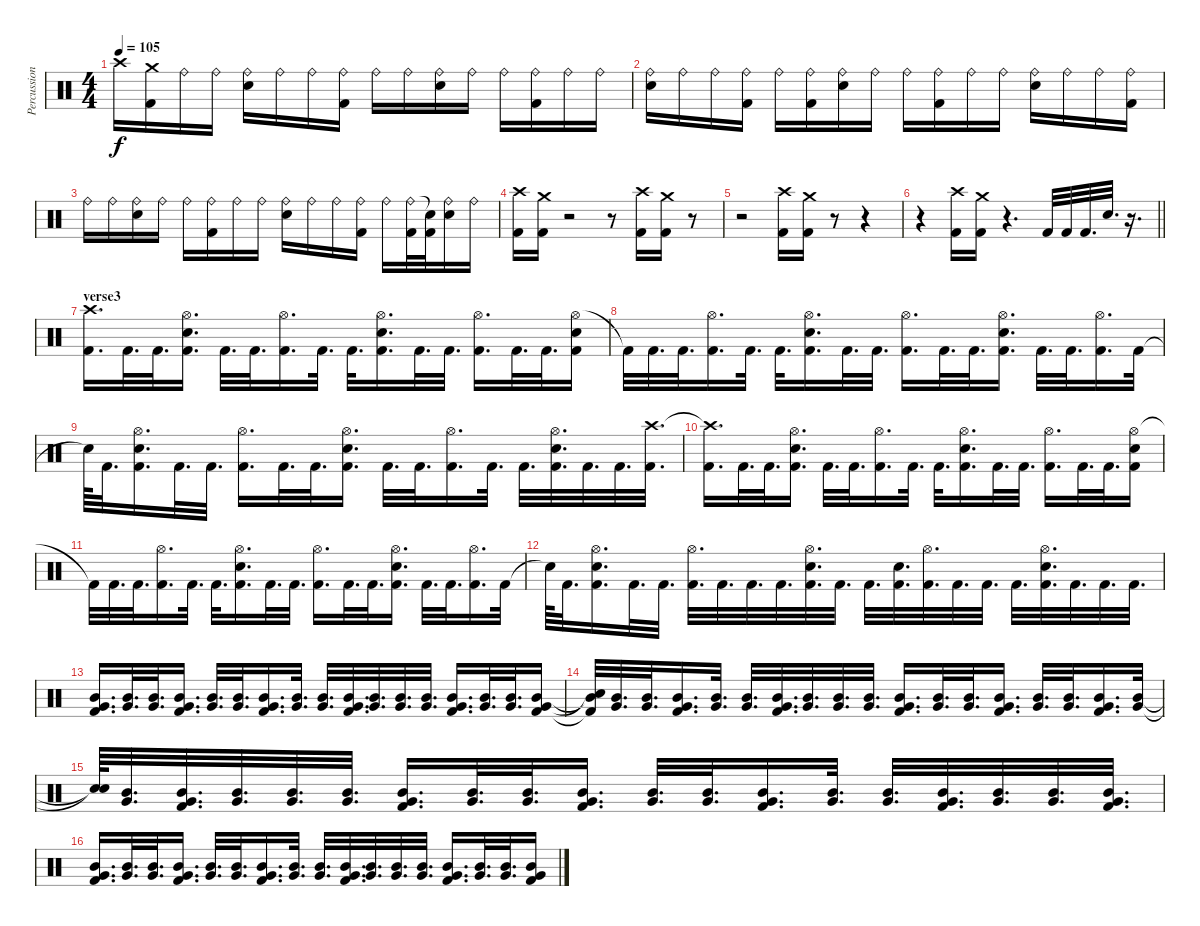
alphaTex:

\track ("Percussions" "Percussion") {instrument percussion}
\staff {score}
\articulation defaults
\ts (4 4)
\tempo 105
\clef neutral
\ks c "Crash high (hit)".16{dy f}
("Crash medium (hit)" "Kick (hit) 2").16 "Ride (bell)".16 "Ride (bell)".16 ("Ride (bell)" "Snare (hit) 2").16 "Ride (bell)".16 "Ride (bell)".16 ("Ride (bell)" "Kick (hit) 2").16 "Ride (bell)".16 "Ride (bell)".16 ("Ride (bell)" "Snare (hit) 2").16 "Ride (bell)".16 "Ride (bell)".16 ("Ride (bell)" "Kick (hit) 2").16 "Ride (bell)".16 "Ride (bell)".16 |
("Ride (bell)" "Snare (hit) 2").16 "Ride (bell)".16 "Ride (bell)".16 ("Ride (bell)" "Kick (hit) 2").16 "Ride (bell)".16 ("Ride (bell)" "Kick (hit) 2").16 ("Ride (bell)" "Snare (hit) 2").16 "Ride (bell)".16 "Ride (bell)".16 ("Ride (bell)" "Kick (hit) 2").16 "Ride (bell)".16 "Ride (bell)".16 ("Ride (bell)" "Snare (hit) 2").16 "Ride (bell)".16 "Ride (bell)".16 ("Ride (bell)" "Kick (hit) 2").16 |
"Ride (bell)".16 "Ride (bell)".16 ("Ride (bell)" "Snare (hit) 2").16 "Ride (bell)".16 "Ride (bell)".16 ("Ride (bell)" "Kick (hit) 2").16 "Ride (bell)".16 "Ride (bell)".16 ("Ride (bell)" "Snare (hit) 2").16 "Ride (bell)".16 "Ride (bell)".16 ("Ride (bell)" "Kick (hit) 2").16 "Ride (bell)".16 ("Ride (bell)" "Kick (hit) 2").32 ("Snare (hit)"{t} "Kick (hit) 2").32 ("Ride (bell)" "Snare (hit) 2").16 "Ride (bell)".16 |
("Crash high (hit)" "Kick (hit) 2").16 ("Crash medium (hit)" "Kick (hit) 2").16 r.2 r.8 ("Crash high (hit)" "Kick (hit) 2").16 ("Crash medium (hit)" "Kick (hit) 2").16 r.8 |
r.2 ("Crash high (hit)" "Kick (hit) 2").16 ("Crash medium (hit)" "Kick (hit) 2").16 r.8 r.4 |
\barLineRight lightlight
r.4 ("Crash high (hit)" "Kick (hit) 2").16 ("Crash medium (hit)" "Kick (hit) 2").16 r.4{d} "Kick (hit) 2".32 "Kick (hit) 2".32 "Kick (hit) 2".32{d} "Snare (hit) 2".32{d} r.16{d} |
\section ("" "verse3")
("Crash high (hit)" "Kick (hit) 2").16{d} "Kick (hit) 2".32{d} "Kick (hit) 2".32{d} ("Hi-Hat (open)" "Snare (hit) 2" "Kick (hit) 2").16{d} "Kick (hit) 2".32{d} "Kick (hit) 2".32{d} ("Hi-Hat (open)" "Kick (hit) 2").16{d} "Kick (hit) 2".32{d} "Kick (hit) 2".32{d} ("Hi-Hat (open)" "Snare (hit) 2" "Kick (hit) 2").16{d} "Kick (hit) 2".32{d} "Kick (hit) 2".32{d} ("Hi-Hat (open)" "Kick (hit) 2").16{d} "Kick (hit) 2".32{d} "Kick (hit) 2".32{d} ("Hi-Hat (open)" "Snare (hit) 2" "Kick (hit) 2").16 |
"Kick (hit) 2"{t}.32 "Kick (hit) 2".32{d} "Kick (hit) 2".32{d} ("Hi-Hat (open)" "Kick (hit) 2").16{d} "Kick (hit) 2".32{d} "Kick (hit) 2".32{d} ("Hi-Hat (open)" "Snare (hit) 2" "Kick (hit) 2").16{d} "Kick (hit) 2".32{d} "Kick (hit) 2".32{d} ("Hi-Hat (open)" "Kick (hit) 2").16{d} "Kick (hit) 2".32{d} "Kick (hit) 2".32{d} ("Hi-Hat (open)" "Snare (hit) 2" "Kick (hit) 2").16{d} "Kick (hit) 2".32{d} "Kick (hit) 2".32{d} ("Hi-Hat (open)" "Kick (hit) 2").16{d} "Kick (hit) 2".32 |
"Snare (hit)"{t}.64 "Kick (hit) 2".32{d} ("Hi-Hat (open)" "Snare (hit) 2" "Kick (hit) 2").16{d} "Kick (hit) 2".32{d} "Kick (hit) 2".32{d} ("Hi-Hat (open)" "Kick (hit) 2").16{d} "Kick (hit) 2".32{d} "Kick (hit) 2".32{d} ("Hi-Hat (open)" "Snare (hit) 2" "Kick (hit) 2").16{d} "Kick (hit) 2".32{d} "Kick (hit) 2".32{d} ("Hi-Hat (open)" "Kick (hit) 2").16{d} "Kick (hit) 2".32{d} "Kick (hit) 2".32{d} ("Hi-Hat (open)" "Snare (hit) 2" "Kick (hit) 2").32{d} "Kick (hit) 2".32{d} "Kick (hit) 2".32{d} ("Crash high (hit)" "Kick (hit) 2").32{d} |
("Crash high (hit)"{t} "Kick (hit) 2").16{d} "Kick (hit) 2".32{d} "Kick (hit) 2".32{d} ("Hi-Hat (open)" "Snare (hit) 2" "Kick (hit) 2").16{d} "Kick (hit) 2".32{d} "Kick (hit) 2".32{d} ("Hi-Hat (open)" "Kick (hit) 2").16{d} "Kick (hit) 2".32{d} "Kick (hit) 2".32{d} ("Hi-Hat (open)" "Snare (hit) 2" "Kick (hit) 2").16{d} "Kick (hit) 2".32{d} "Kick (hit) 2".32{d} ("Hi-Hat (open)" "Kick (hit) 2").16{d} "Kick (hit) 2".32{d} "Kick (hit) 2".32{d} ("Hi-Hat (open)" "Snare (hit) 2" "Kick (hit) 2").16 |
"Kick (hit) 2"{t}.32 "Kick (hit) 2".32{d} "Kick (hit) 2".32{d} ("Hi-Hat (open)" "Kick (hit) 2").16{d} "Kick (hit) 2".32{d} "Kick (hit) 2".32{d} ("Hi-Hat (open)" "Snare (hit) 2" "Kick (hit) 2").16{d} "Kick (hit) 2".32{d} "Kick (hit) 2".32{d} ("Hi-Hat (open)" "Kick (hit) 2").16{d} "Kick (hit) 2".32{d} "Kick (hit) 2".32{d} ("Hi-Hat (open)" "Snare (hit) 2" "Kick (hit) 2").16{d} "Kick (hit) 2".32{d} "Kick (hit) 2".32{d} ("Hi-Hat (open)" "Kick (hit) 2").16{d} "Kick (hit) 2".32 |
"Snare (hit)"{t}.64 "Kick (hit) 2".32{d} ("Hi-Hat (open)" "Snare (hit) 2" "Kick (hit) 2").16{d} "Kick (hit) 2".32{d} "Kick (hit) 2".32{d} ("Hi-Hat (open)" "Kick (hit) 2").32{d} "Kick (hit) 2".32{d} "Kick (hit) 2".32{d} "Kick (hit) 2".32{d} ("Hi-Hat (open)" "Snare (hit) 2" "Kick (hit) 2").32{d} "Kick (hit) 2".32{d} "Kick (hit) 2".32{d} ("Snare (hit) 2" "Kick (hit) 2").32{d} ("Hi-Hat (open)" "Kick (hit) 2").32{d} "Kick (hit) 2".32{d} "Kick (hit) 2".32{d} "Kick (hit) 2".32{d} ("Hi-Hat (open)" "Snare (hit) 2" "Kick (hit) 2").32{d} "Kick (hit) 2".32{d} "Kick (hit) 2".32{d} "Kick (hit) 2".32{d} |
("Mid Tom (hit)" "Very Low Tom (hit)" "Kick (hit) 2").16{d} ("Mid Tom (hit)" "Very Low Tom (hit)").32{d} ("Mid Tom (hit)" "Very Low Tom (hit)").32{d} ("Mid Tom (hit)" "Very Low Tom (hit)" "Kick (hit) 2").16{d} ("Mid Tom (hit)" "Very Low Tom (hit)").32{d} ("Mid Tom (hit)" "Very Low Tom (hit)").32{d} ("Mid Tom (hit)" "Very Low Tom (hit)" "Kick (hit) 2").16{d} ("Mid Tom (hit)" "Very Low Tom (hit)").32{d} ("Mid Tom (hit)" "Very Low Tom (hit)").32{d} ("Mid Tom (hit)" "Very Low Tom (hit)" "Kick (hit) 2").32{d} ("Mid Tom (hit)" "Very Low Tom (hit)").32{d} ("Mid Tom (hit)" "Very Low Tom (hit)").32{d} ("Mid Tom (hit)" "Very Low Tom (hit)").32{d} ("Mid Tom (hit)" "Very Low Tom (hit)" "Kick (hit) 2").16{d} ("Mid Tom (hit)" "Very Low Tom (hit)").32{d} ("Mid Tom (hit)" "Very Low Tom (hit)").32{d} ("Mid Tom (hit)" "Very Low Tom (hit)" "Kick (hit) 2").16 |
("Mid Tom (hit)"{t} "Snare (hit)"{t} "Kick (hit) 2"{t}).32 ("Mid Tom (hit)" "Very Low Tom (hit)").32{d} ("Mid Tom (hit)" "Very Low Tom (hit)").32{d} ("Mid Tom (hit)" "Very Low Tom (hit)" "Kick (hit) 2").16{d} ("Mid Tom (hit)" "Very Low Tom (hit)").32{d} ("Mid Tom (hit)" "Very Low Tom (hit)").32{d} ("Mid Tom (hit)" "Very Low Tom (hit)" "Kick (hit) 2").32{d} ("Mid Tom (hit)" "Very Low Tom (hit)").32{d} ("Mid Tom (hit)" "Very Low Tom (hit)").32{d} ("Mid Tom (hit)" "Very Low Tom (hit)").32{d} ("Mid Tom (hit)" "Very Low Tom (hit)" "Kick (hit) 2").16{d} ("Mid Tom (hit)" "Very Low Tom (hit)").32{d} ("Mid Tom (hit)" "Very Low Tom (hit)").32{d} ("Mid Tom (hit)" "Very Low Tom (hit)" "Kick (hit) 2").16{d} ("Mid Tom (hit)" "Very Low Tom (hit)").32{d} ("Mid Tom (hit)" "Very Low Tom (hit)").32{d} ("Mid Tom (hit)" "Very Low Tom (hit)" "Kick (hit) 2").16{d} ("Mid Tom (hit)" "Very Low Tom (hit)").32 |
("Snare (hit)"{t} "Snare (hit)"{t}).64 ("Mid Tom (hit)" "Very Low Tom (hit)").32{d} ("Mid Tom (hit)" "Very Low Tom (hit)" "Kick (hit) 2").32{d} ("Mid Tom (hit)" "Very Low Tom (hit)").32{d} ("Mid Tom (hit)" "Very Low Tom (hit)").32{d} ("Mid Tom (hit)" "Very Low Tom (hit)").32{d} ("Mid Tom (hit)" "Very Low Tom (hit)" "Kick (hit) 2").16{d} ("Mid Tom (hit)" "Very Low Tom (hit)").32{d} ("Mid Tom (hit)" "Very Low Tom (hit)").32{d} ("Mid Tom (hit)" "Very Low Tom (hit)" "Kick (hit) 2").16{d} ("Mid Tom (hit)" "Very Low Tom (hit)").32{d} ("Mid Tom (hit)" "Very Low Tom (hit)").32{d} ("Mid Tom (hit)" "Very Low Tom (hit)" "Kick (hit) 2").16{d} ("Mid Tom (hit)" "Very Low Tom (hit)").32{d} ("Mid Tom (hit)" "Very Low Tom (hit)").32{d} ("Mid Tom (hit)" "Very Low Tom (hit)" "Kick (hit) 2").32{d} ("Mid Tom (hit)" "Very Low Tom (hit)").32{d} ("Mid Tom (hit)" "Very Low Tom (hit)").32{d} ("Mid Tom (hit)" "Very Low Tom (hit)" "Kick (hit) 2").32{d} |
("Mid Tom (hit)" "Very Low Tom (hit)" "Kick (hit) 2").16{d} ("Mid Tom (hit)" "Very Low Tom (hit)").32{d} ("Mid Tom (hit)" "Very Low Tom (hit)").32{d} ("Mid Tom (hit)" "Very Low Tom (hit)" "Kick (hit) 2").16{d} ("Mid Tom (hit)" "Very Low Tom (hit)").32{d} ("Mid Tom (hit)" "Very Low Tom (hit)").32{d} ("Mid Tom (hit)" "Very Low Tom (hit)" "Kick (hit) 2").16{d} ("Mid Tom (hit)" "Very Low Tom (hit)").32{d} ("Mid Tom (hit)" "Very Low Tom (hit)").32{d} ("Mid Tom (hit)" "Very Low Tom (hit)" "Kick (hit) 2").32{d} ("Mid Tom (hit)" "Very Low Tom (hit)").32{d} ("Mid Tom (hit)" "Very Low Tom (hit)").32{d} ("Mid Tom (hit)" "Very Low Tom (hit)").32{d} ("Mid Tom (hit)" "Very Low Tom (hit)" "Kick (hit) 2").16{d} ("Mid Tom (hit)" "Very Low Tom (hit)").32{d} ("Mid Tom (hit)" "Very Low Tom (hit)").32{d} ("Mid Tom (hit)" "Very Low Tom (hit)" "Kick (hit) 2").16
